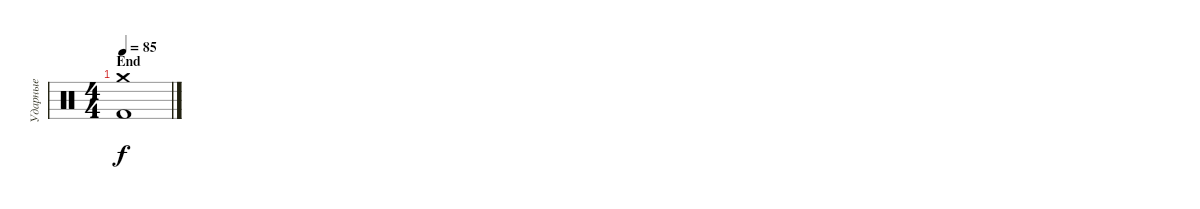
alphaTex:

\track ("Ударные" "Ударные") {instrument percussion}
\staff {score}
\articulation defaults
\ts (4 4)
\section ("" "End")
\tempo 85
\clef neutral
\ks c
("Crash medium (hit)" "Kick (hit) 2").1{dy f}
